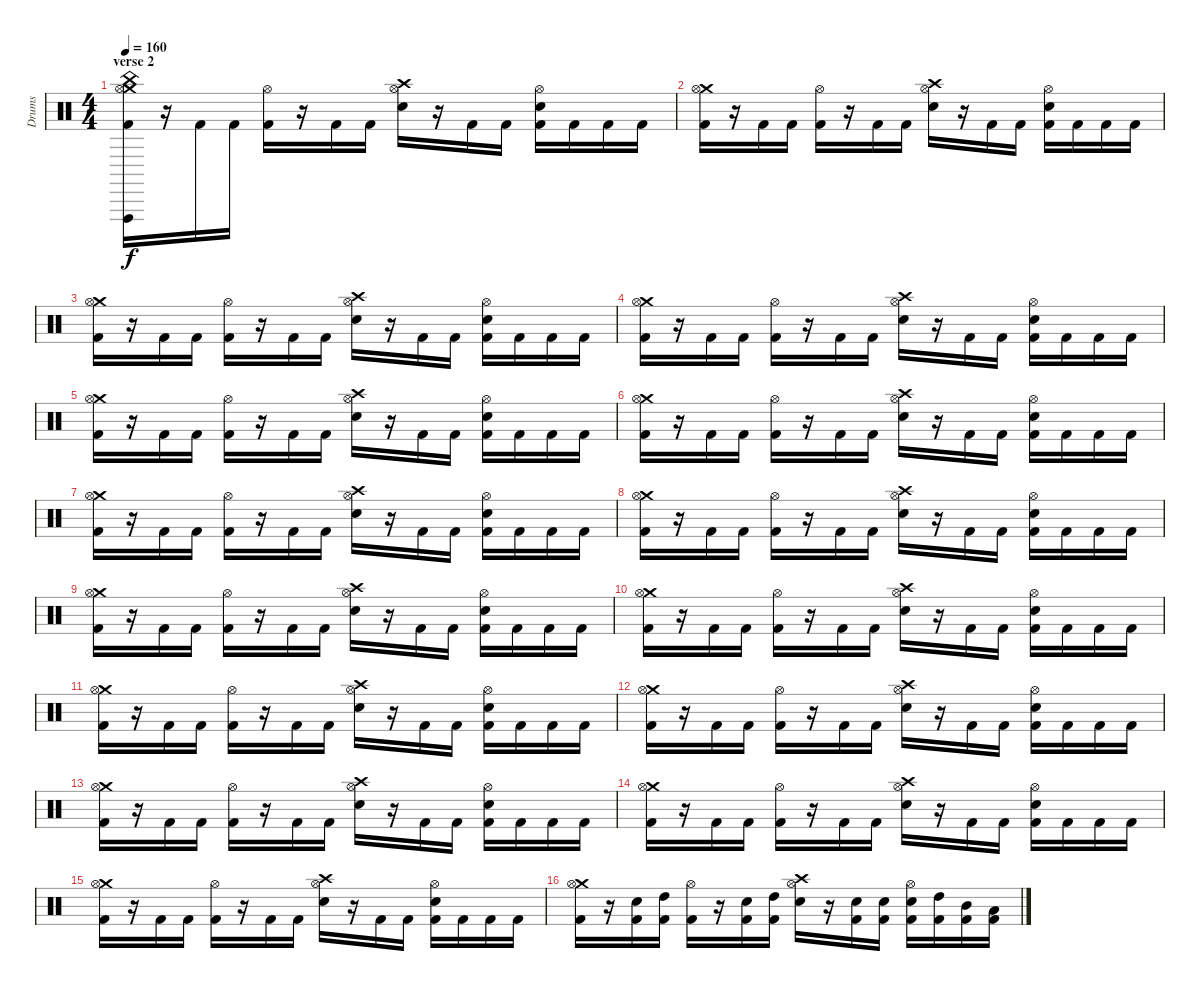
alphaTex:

\track ("Drums" "Drums") {instrument percussion}
\staff {score}
\articulation defaults
\ts (4 4)
\section ("" "verse 2")
\tempo 160
\clef neutral
\ks c
("Crash medium (hit)" "China (hit)" "Hi-Hat (open)" "Vibraslap (hit)" "Kick (hit) 2").16{dy f} r.16 "Kick (hit) 2".16 "Kick (hit) 2".16 ("Hi-Hat (open)" "Kick (hit) 2").16 r.16 "Kick (hit) 2".16 "Kick (hit) 2".16 ("Crash high (hit)" "Hi-Hat (open)" "Electric Snare (hit)").16 r.16 "Kick (hit) 2".16 "Kick (hit) 2".16 ("Hi-Hat (open)" "Electric Snare (hit)" "Kick (hit) 2").16 "Kick (hit) 2".16 "Kick (hit) 2".16 "Kick (hit) 2".16 |
("Crash medium (hit)" "Hi-Hat (open)" "Kick (hit) 2").16 r.16 "Kick (hit) 2".16 "Kick (hit) 2".16 ("Hi-Hat (open)" "Kick (hit) 2").16 r.16 "Kick (hit) 2".16 "Kick (hit) 2".16 ("Crash high (hit)" "Hi-Hat (open)" "Electric Snare (hit)").16 r.16 "Kick (hit) 2".16 "Kick (hit) 2".16 ("Hi-Hat (open)" "Electric Snare (hit)" "Kick (hit) 2").16 "Kick (hit) 2".16 "Kick (hit) 2".16 "Kick (hit) 2".16 |
("Crash medium (hit)" "Hi-Hat (open)" "Kick (hit) 2").16 r.16 "Kick (hit) 2".16 "Kick (hit) 2".16 ("Hi-Hat (open)" "Kick (hit) 2").16 r.16 "Kick (hit) 2".16 "Kick (hit) 2".16 ("Crash high (hit)" "Hi-Hat (open)" "Electric Snare (hit)").16 r.16 "Kick (hit) 2".16 "Kick (hit) 2".16 ("Hi-Hat (open)" "Electric Snare (hit)" "Kick (hit) 2").16 "Kick (hit) 2".16 "Kick (hit) 2".16 "Kick (hit) 2".16 |
("Crash medium (hit)" "Hi-Hat (open)" "Kick (hit) 2").16 r.16 "Kick (hit) 2".16 "Kick (hit) 2".16 ("Hi-Hat (open)" "Kick (hit) 2").16 r.16 "Kick (hit) 2".16 "Kick (hit) 2".16 ("Crash high (hit)" "Hi-Hat (open)" "Electric Snare (hit)").16 r.16 "Kick (hit) 2".16 "Kick (hit) 2".16 ("Hi-Hat (open)" "Electric Snare (hit)" "Kick (hit) 2").16 "Kick (hit) 2".16 "Kick (hit) 2".16 "Kick (hit) 2".16 |
("Crash medium (hit)" "Hi-Hat (open)" "Kick (hit) 2").16 r.16 "Kick (hit) 2".16 "Kick (hit) 2".16 ("Hi-Hat (open)" "Kick (hit) 2").16 r.16 "Kick (hit) 2".16 "Kick (hit) 2".16 ("Crash high (hit)" "Hi-Hat (open)" "Electric Snare (hit)").16 r.16 "Kick (hit) 2".16 "Kick (hit) 2".16 ("Hi-Hat (open)" "Electric Snare (hit)" "Kick (hit) 2").16 "Kick (hit) 2".16 "Kick (hit) 2".16 "Kick (hit) 2".16 |
("Crash medium (hit)" "Hi-Hat (open)" "Kick (hit) 2").16 r.16 "Kick (hit) 2".16 "Kick (hit) 2".16 ("Hi-Hat (open)" "Kick (hit) 2").16 r.16 "Kick (hit) 2".16 "Kick (hit) 2".16 ("Crash high (hit)" "Hi-Hat (open)" "Electric Snare (hit)").16 r.16 "Kick (hit) 2".16 "Kick (hit) 2".16 ("Hi-Hat (open)" "Electric Snare (hit)" "Kick (hit) 2").16 "Kick (hit) 2".16 "Kick (hit) 2".16 "Kick (hit) 2".16 |
("Crash medium (hit)" "Hi-Hat (open)" "Kick (hit) 2").16 r.16 "Kick (hit) 2".16 "Kick (hit) 2".16 ("Hi-Hat (open)" "Kick (hit) 2").16 r.16 "Kick (hit) 2".16 "Kick (hit) 2".16 ("Crash high (hit)" "Hi-Hat (open)" "Electric Snare (hit)").16 r.16 "Kick (hit) 2".16 "Kick (hit) 2".16 ("Hi-Hat (open)" "Electric Snare (hit)" "Kick (hit) 2").16 "Kick (hit) 2".16 "Kick (hit) 2".16 "Kick (hit) 2".16 |
("Crash medium (hit)" "Hi-Hat (open)" "Kick (hit) 2").16 r.16 "Kick (hit) 2".16 "Kick (hit) 2".16 ("Hi-Hat (open)" "Kick (hit) 2").16 r.16 "Kick (hit) 2".16 "Kick (hit) 2".16 ("Crash high (hit)" "Hi-Hat (open)" "Electric Snare (hit)").16 r.16 "Kick (hit) 2".16 "Kick (hit) 2".16 ("Hi-Hat (open)" "Electric Snare (hit)" "Kick (hit) 2").16 "Kick (hit) 2".16 "Kick (hit) 2".16 "Kick (hit) 2".16 |
("Crash medium (hit)" "Hi-Hat (open)" "Kick (hit) 2").16 r.16 "Kick (hit) 2".16 "Kick (hit) 2".16 ("Hi-Hat (open)" "Kick (hit) 2").16 r.16 "Kick (hit) 2".16 "Kick (hit) 2".16 ("Crash high (hit)" "Hi-Hat (open)" "Electric Snare (hit)").16 r.16 "Kick (hit) 2".16 "Kick (hit) 2".16 ("Hi-Hat (open)" "Electric Snare (hit)" "Kick (hit) 2").16 "Kick (hit) 2".16 "Kick (hit) 2".16 "Kick (hit) 2".16 |
("Crash medium (hit)" "Hi-Hat (open)" "Kick (hit) 2").16 r.16 "Kick (hit) 2".16 "Kick (hit) 2".16 ("Hi-Hat (open)" "Kick (hit) 2").16 r.16 "Kick (hit) 2".16 "Kick (hit) 2".16 ("Crash high (hit)" "Hi-Hat (open)" "Electric Snare (hit)").16 r.16 "Kick (hit) 2".16 "Kick (hit) 2".16 ("Hi-Hat (open)" "Electric Snare (hit)" "Kick (hit) 2").16 "Kick (hit) 2".16 "Kick (hit) 2".16 "Kick (hit) 2".16 |
("Crash medium (hit)" "Hi-Hat (open)" "Kick (hit) 2").16 r.16 "Kick (hit) 2".16 "Kick (hit) 2".16 ("Hi-Hat (open)" "Kick (hit) 2").16 r.16 "Kick (hit) 2".16 "Kick (hit) 2".16 ("Crash high (hit)" "Hi-Hat (open)" "Electric Snare (hit)").16 r.16 "Kick (hit) 2".16 "Kick (hit) 2".16 ("Hi-Hat (open)" "Electric Snare (hit)" "Kick (hit) 2").16 "Kick (hit) 2".16 "Kick (hit) 2".16 "Kick (hit) 2".16 |
("Crash medium (hit)" "Hi-Hat (open)" "Kick (hit) 2").16 r.16 "Kick (hit) 2".16 "Kick (hit) 2".16 ("Hi-Hat (open)" "Kick (hit) 2").16 r.16 "Kick (hit) 2".16 "Kick (hit) 2".16 ("Crash high (hit)" "Hi-Hat (open)" "Electric Snare (hit)").16 r.16 "Kick (hit) 2".16 "Kick (hit) 2".16 ("Hi-Hat (open)" "Electric Snare (hit)" "Kick (hit) 2").16 "Kick (hit) 2".16 "Kick (hit) 2".16 "Kick (hit) 2".16 |
("Crash medium (hit)" "Hi-Hat (open)" "Kick (hit) 2").16 r.16 "Kick (hit) 2".16 "Kick (hit) 2".16 ("Hi-Hat (open)" "Kick (hit) 2").16 r.16 "Kick (hit) 2".16 "Kick (hit) 2".16 ("Crash high (hit)" "Hi-Hat (open)" "Electric Snare (hit)").16 r.16 "Kick (hit) 2".16 "Kick (hit) 2".16 ("Hi-Hat (open)" "Electric Snare (hit)" "Kick (hit) 2").16 "Kick (hit) 2".16 "Kick (hit) 2".16 "Kick (hit) 2".16 |
("Crash medium (hit)" "Hi-Hat (open)" "Kick (hit) 2").16 r.16 "Kick (hit) 2".16 "Kick (hit) 2".16 ("Hi-Hat (open)" "Kick (hit) 2").16 r.16 "Kick (hit) 2".16 "Kick (hit) 2".16 ("Crash high (hit)" "Hi-Hat (open)" "Electric Snare (hit)").16 r.16 "Kick (hit) 2".16 "Kick (hit) 2".16 ("Hi-Hat (open)" "Electric Snare (hit)" "Kick (hit) 2").16 "Kick (hit) 2".16 "Kick (hit) 2".16 "Kick (hit) 2".16 |
("Crash medium (hit)" "Hi-Hat (open)" "Kick (hit) 2").16 r.16 "Kick (hit) 2".16 "Kick (hit) 2".16 ("Hi-Hat (open)" "Kick (hit) 2").16 r.16 "Kick (hit) 2".16 "Kick (hit) 2".16 ("Crash high (hit)" "Hi-Hat (open)" "Electric Snare (hit)").16 r.16 "Kick (hit) 2".16 "Kick (hit) 2".16 ("Hi-Hat (open)" "Electric Snare (hit)" "Kick (hit) 2").16 "Kick (hit) 2".16 "Kick (hit) 2".16 "Kick (hit) 2".16 |
("Crash medium (hit)" "Hi-Hat (open)" "Kick (hit) 2").16 r.16 ("Electric Snare (hit)" "Kick (hit) 2").16 ("High Tom (hit)" "Kick (hit) 2").16 ("Hi-Hat (open)" "Kick (hit) 2").16 r.16 ("Electric Snare (hit)" "Kick (hit) 2").16 ("High Tom (hit)" "Kick (hit) 2").16 ("Crash high (hit)" "Hi-Hat (open)" "Electric Snare (hit)").16 r.16 ("Electric Snare (hit)" "Kick (hit) 2").16 ("Electric Snare (hit)" "Kick (hit) 2").16 ("Hi-Hat (open)" "Electric Snare (hit)" "Kick (hit) 2").16 ("High Tom (hit)" "Kick (hit) 2").16 ("Mid Tom (hit)" "Kick (hit) 2").16 ("Low Tom (hit)" "Kick (hit) 2").16
